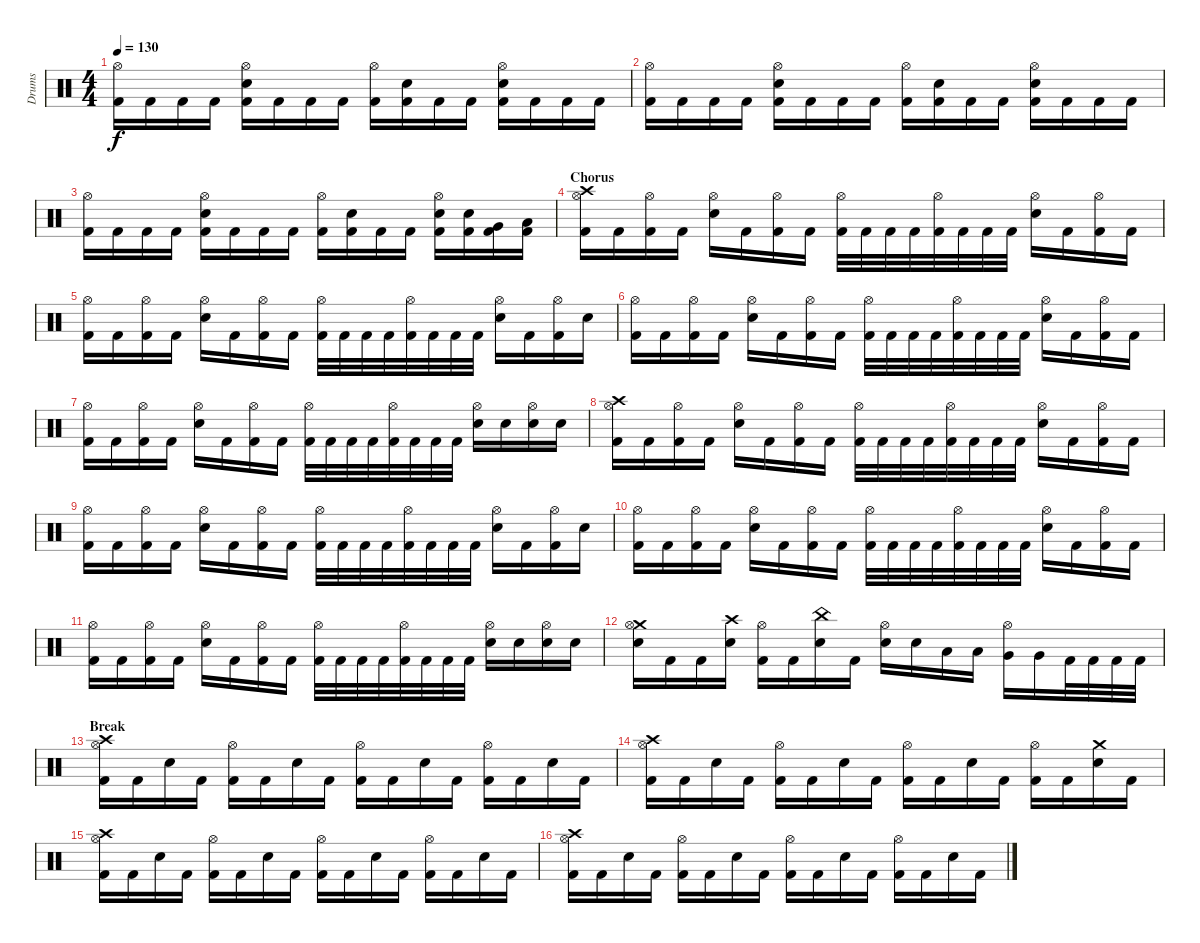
\track ("Drums" "Drums") {instrument percussion}
\staff {score}
\articulation defaults
\ts (4 4)
\tempo 130
\clef neutral
\ks c
("Hi-Hat (open)" "Kick (hit) 2").16{dy f} "Kick (hit) 2".16 "Kick (hit) 2".16 "Kick (hit) 2".16 ("Hi-Hat (open)" "Electric Snare (hit)" "Kick (hit) 2").16 "Kick (hit) 2".16 "Kick (hit) 2".16 "Kick (hit) 2".16 ("Hi-Hat (open)" "Kick (hit) 2").16 ("Electric Snare (hit)" "Kick (hit) 2").16 "Kick (hit) 2".16 "Kick (hit) 2".16 ("Hi-Hat (open)" "Electric Snare (hit)" "Kick (hit) 2").16 "Kick (hit) 2".16 "Kick (hit) 2".16 "Kick (hit) 2".16 |
("Hi-Hat (open)" "Kick (hit) 2").16 "Kick (hit) 2".16 "Kick (hit) 2".16 "Kick (hit) 2".16 ("Hi-Hat (open)" "Electric Snare (hit)" "Kick (hit) 2").16 "Kick (hit) 2".16 "Kick (hit) 2".16 "Kick (hit) 2".16 ("Hi-Hat (open)" "Kick (hit) 2").16 ("Electric Snare (hit)" "Kick (hit) 2").16 "Kick (hit) 2".16 "Kick (hit) 2".16 ("Hi-Hat (open)" "Electric Snare (hit)" "Kick (hit) 2").16 "Kick (hit) 2".16 "Kick (hit) 2".16 "Kick (hit) 2".16 |
("Hi-Hat (open)" "Kick (hit) 2").16 "Kick (hit) 2".16 "Kick (hit) 2".16 "Kick (hit) 2".16 ("Hi-Hat (open)" "Electric Snare (hit)" "Kick (hit) 2").16 "Kick (hit) 2".16 "Kick (hit) 2".16 "Kick (hit) 2".16 ("Hi-Hat (open)" "Kick (hit) 2").16 ("Electric Snare (hit)" "Kick (hit) 2").16 "Kick (hit) 2".16 "Kick (hit) 2".16 ("Hi-Hat (open)" "Electric Snare (hit)" "Kick (hit) 2").16 ("Electric Snare (hit)" "Kick (hit) 2").16 ("Very Low Tom (hit)" "Kick (hit) 2").16 ("Low Floor Tom (hit)" "Kick (hit) 2").16 |
\section ("" "Chorus")
("Crash high (hit)" "Hi-Hat (open)" "Kick (hit) 2").16 "Kick (hit) 2".16 ("Hi-Hat (open)" "Kick (hit) 2").16 "Kick (hit) 2".16 ("Hi-Hat (open)" "Electric Snare (hit)").16 "Kick (hit) 2".16 ("Hi-Hat (open)" "Kick (hit) 2").16 "Kick (hit) 2".16 ("Hi-Hat (open)" "Kick (hit) 2").32 "Kick (hit) 2".32 "Kick (hit) 2".32 "Kick (hit) 2".32 ("Hi-Hat (open)" "Kick (hit) 2").32 "Kick (hit) 2".32 "Kick (hit) 2".32 "Kick (hit) 2".32 ("Hi-Hat (open)" "Electric Snare (hit)").16 "Kick (hit) 2".16 ("Hi-Hat (open)" "Kick (hit) 2").16 "Kick (hit) 2".16 |
("Hi-Hat (open)" "Kick (hit) 2").16 "Kick (hit) 2".16 ("Hi-Hat (open)" "Kick (hit) 2").16 "Kick (hit) 2".16 ("Hi-Hat (open)" "Electric Snare (hit)").16 "Kick (hit) 2".16 ("Hi-Hat (open)" "Kick (hit) 2").16 "Kick (hit) 2".16 ("Hi-Hat (open)" "Kick (hit) 2").32 "Kick (hit) 2".32 "Kick (hit) 2".32 "Kick (hit) 2".32 ("Hi-Hat (open)" "Kick (hit) 2").32 "Kick (hit) 2".32 "Kick (hit) 2".32 "Kick (hit) 2".32 ("Hi-Hat (open)" "Electric Snare (hit)").16 "Kick (hit) 2".16 ("Hi-Hat (open)" "Kick (hit) 2").16 "Electric Snare (hit)".16 |
("Hi-Hat (open)" "Kick (hit) 2").16 "Kick (hit) 2".16 ("Hi-Hat (open)" "Kick (hit) 2").16 "Kick (hit) 2".16 ("Hi-Hat (open)" "Electric Snare (hit)").16 "Kick (hit) 2".16 ("Hi-Hat (open)" "Kick (hit) 2").16 "Kick (hit) 2".16 ("Hi-Hat (open)" "Kick (hit) 2").32 "Kick (hit) 2".32 "Kick (hit) 2".32 "Kick (hit) 2".32 ("Hi-Hat (open)" "Kick (hit) 2").32 "Kick (hit) 2".32 "Kick (hit) 2".32 "Kick (hit) 2".32 ("Hi-Hat (open)" "Electric Snare (hit)").16 "Kick (hit) 2".16 ("Hi-Hat (open)" "Kick (hit) 2").16 "Kick (hit) 2".16 |
("Hi-Hat (open)" "Kick (hit) 2").16 "Kick (hit) 2".16 ("Hi-Hat (open)" "Kick (hit) 2").16 "Kick (hit) 2".16 ("Hi-Hat (open)" "Electric Snare (hit)").16 "Kick (hit) 2".16 ("Hi-Hat (open)" "Kick (hit) 2").16 "Kick (hit) 2".16 ("Hi-Hat (open)" "Kick (hit) 2").32 "Kick (hit) 2".32 "Kick (hit) 2".32 "Kick (hit) 2".32 ("Hi-Hat (open)" "Kick (hit) 2").32 "Kick (hit) 2".32 "Kick (hit) 2".32 "Kick (hit) 2".32 ("Hi-Hat (open)" "Electric Snare (hit)").16 "Electric Snare (hit)".16 ("Hi-Hat (open)" "Electric Snare (hit)").16 "Electric Snare (hit)".16 |
("Crash high (hit)" "Hi-Hat (open)" "Kick (hit) 2").16 "Kick (hit) 2".16 ("Hi-Hat (open)" "Kick (hit) 2").16 "Kick (hit) 2".16 ("Hi-Hat (open)" "Electric Snare (hit)").16 "Kick (hit) 2".16 ("Hi-Hat (open)" "Kick (hit) 2").16 "Kick (hit) 2".16 ("Hi-Hat (open)" "Kick (hit) 2").32 "Kick (hit) 2".32 "Kick (hit) 2".32 "Kick (hit) 2".32 ("Hi-Hat (open)" "Kick (hit) 2").32 "Kick (hit) 2".32 "Kick (hit) 2".32 "Kick (hit) 2".32 ("Hi-Hat (open)" "Electric Snare (hit)").16 "Kick (hit) 2".16 ("Hi-Hat (open)" "Kick (hit) 2").16 "Kick (hit) 2".16 |
("Hi-Hat (open)" "Kick (hit) 2").16 "Kick (hit) 2".16 ("Hi-Hat (open)" "Kick (hit) 2").16 "Kick (hit) 2".16 ("Hi-Hat (open)" "Electric Snare (hit)").16 "Kick (hit) 2".16 ("Hi-Hat (open)" "Kick (hit) 2").16 "Kick (hit) 2".16 ("Hi-Hat (open)" "Kick (hit) 2").32 "Kick (hit) 2".32 "Kick (hit) 2".32 "Kick (hit) 2".32 ("Hi-Hat (open)" "Kick (hit) 2").32 "Kick (hit) 2".32 "Kick (hit) 2".32 "Kick (hit) 2".32 ("Hi-Hat (open)" "Electric Snare (hit)").16 "Kick (hit) 2".16 ("Hi-Hat (open)" "Kick (hit) 2").16 "Electric Snare (hit)".16 |
("Hi-Hat (open)" "Kick (hit) 2").16 "Kick (hit) 2".16 ("Hi-Hat (open)" "Kick (hit) 2").16 "Kick (hit) 2".16 ("Hi-Hat (open)" "Electric Snare (hit)").16 "Kick (hit) 2".16 ("Hi-Hat (open)" "Kick (hit) 2").16 "Kick (hit) 2".16 ("Hi-Hat (open)" "Kick (hit) 2").32 "Kick (hit) 2".32 "Kick (hit) 2".32 "Kick (hit) 2".32 ("Hi-Hat (open)" "Kick (hit) 2").32 "Kick (hit) 2".32 "Kick (hit) 2".32 "Kick (hit) 2".32 ("Hi-Hat (open)" "Electric Snare (hit)").16 "Kick (hit) 2".16 ("Hi-Hat (open)" "Kick (hit) 2").16 "Kick (hit) 2".16 |
("Hi-Hat (open)" "Kick (hit) 2").16 "Kick (hit) 2".16 ("Hi-Hat (open)" "Kick (hit) 2").16 "Kick (hit) 2".16 ("Hi-Hat (open)" "Electric Snare (hit)").16 "Kick (hit) 2".16 ("Hi-Hat (open)" "Kick (hit) 2").16 "Kick (hit) 2".16 ("Hi-Hat (open)" "Kick (hit) 2").32 "Kick (hit) 2".32 "Kick (hit) 2".32 "Kick (hit) 2".32 ("Hi-Hat (open)" "Kick (hit) 2").32 "Kick (hit) 2".32 "Kick (hit) 2".32 "Kick (hit) 2".32 ("Hi-Hat (open)" "Electric Snare (hit)").16 "Electric Snare (hit)".16 ("Hi-Hat (open)" "Electric Snare (hit)").16 "Electric Snare (hit)".16 |
("Crash medium (hit)" "Hi-Hat (open)" "Electric Snare (hit)").16 "Kick (hit) 2".16 "Kick (hit) 2".16 ("Crash high (hit)" "Electric Snare (hit)").16 ("Hi-Hat (open)" "Kick (hit) 2").16 "Kick (hit) 2".16 ("China (hit)" "Electric Snare (hit)").16 "Kick (hit) 2".16 ("Hi-Hat (open)" "Electric Snare (hit)").16 "Electric Snare (hit)".16 "Low Tom (hit)".16 "Low Tom (hit)".16 ("Hi-Hat (open)" "Very Low Tom (hit)").16 "Very Low Tom (hit)".16 "Kick (hit) 2".32 "Kick (hit) 2".32 "Kick (hit) 2".32 "Kick (hit) 2".32 |
\section ("" "Break")
("Crash high (hit)" "Hi-Hat (open)" "Kick (hit) 2").16 "Kick (hit) 2".16 "Electric Snare (hit)".16 "Kick (hit) 2".16 ("Hi-Hat (open)" "Kick (hit) 2").16 "Kick (hit) 2".16 "Electric Snare (hit)".16 "Kick (hit) 2".16 ("Hi-Hat (open)" "Kick (hit) 2").16 "Kick (hit) 2".16 "Electric Snare (hit)".16 "Kick (hit) 2".16 ("Hi-Hat (open)" "Kick (hit) 2").16 "Kick (hit) 2".16 "Electric Snare (hit)".16 "Kick (hit) 2".16 |
("Crash high (hit)" "Hi-Hat (open)" "Kick (hit) 2").16 "Kick (hit) 2".16 "Electric Snare (hit)".16 "Kick (hit) 2".16 ("Hi-Hat (open)" "Kick (hit) 2").16 "Kick (hit) 2".16 "Electric Snare (hit)".16 "Kick (hit) 2".16 ("Hi-Hat (open)" "Kick (hit) 2").16 "Kick (hit) 2".16 "Electric Snare (hit)".16 "Kick (hit) 2".16 ("Hi-Hat (open)" "Kick (hit) 2").16 "Kick (hit) 2".16 ("Crash medium (hit)" "Electric Snare (hit)").16 "Kick (hit) 2".16 |
("Crash high (hit)" "Hi-Hat (open)" "Kick (hit) 2").16 "Kick (hit) 2".16 "Electric Snare (hit)".16 "Kick (hit) 2".16 ("Hi-Hat (open)" "Kick (hit) 2").16 "Kick (hit) 2".16 "Electric Snare (hit)".16 "Kick (hit) 2".16 ("Hi-Hat (open)" "Kick (hit) 2").16 "Kick (hit) 2".16 "Electric Snare (hit)".16 "Kick (hit) 2".16 ("Hi-Hat (open)" "Kick (hit) 2").16 "Kick (hit) 2".16 "Electric Snare (hit)".16 "Kick (hit) 2".16 |
("Crash high (hit)" "Hi-Hat (open)" "Kick (hit) 2").16 "Kick (hit) 2".16 "Electric Snare (hit)".16 "Kick (hit) 2".16 ("Hi-Hat (open)" "Kick (hit) 2").16 "Kick (hit) 2".16 "Electric Snare (hit)".16 "Kick (hit) 2".16 ("Hi-Hat (open)" "Kick (hit) 2").16 "Kick (hit) 2".16 "Electric Snare (hit)".16 "Kick (hit) 2".16 ("Hi-Hat (open)" "Kick (hit) 2").16 "Kick (hit) 2".16 "Electric Snare (hit)".16 "Kick (hit) 2".16
